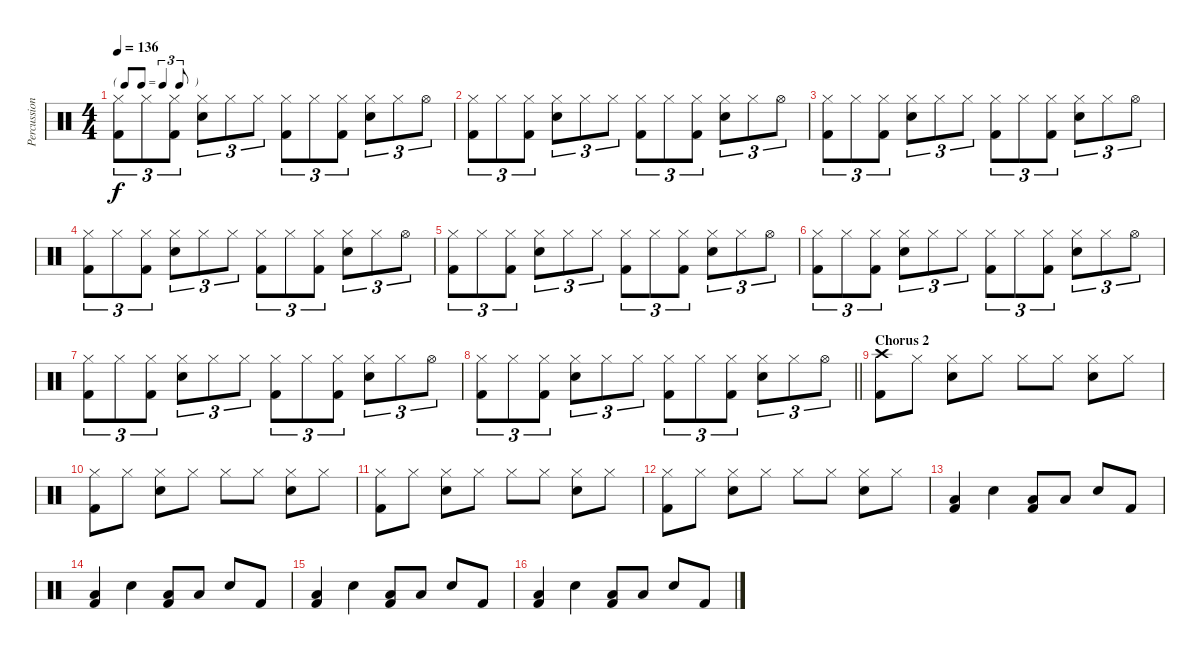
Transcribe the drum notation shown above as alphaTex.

\track ("Percussions" "Percussion") {instrument percussion}
\staff {score}
\articulation defaults
\ts (4 4)
\tf triplet8th
\tempo 136
\clef neutral
\ks c
("Hi-Hat (closed)" "Kick (hit) 2").8{tu (3 2) dy f} "Hi-Hat (closed)".8{tu (3 2)} ("Hi-Hat (closed)" "Kick (hit) 2").8{tu (3 2)} ("Hi-Hat (closed)" "Snare (hit) 2").8{tu (3 2)} "Hi-Hat (closed)".8{tu (3 2)} "Hi-Hat (closed)".8{tu (3 2)} ("Hi-Hat (closed)" "Kick (hit) 2").8{tu (3 2)} "Hi-Hat (closed)".8{tu (3 2)} ("Hi-Hat (closed)" "Kick (hit) 2").8{tu (3 2)} ("Hi-Hat (closed)" "Snare (hit) 2").8{tu (3 2)} "Hi-Hat (closed)".8{tu (3 2)} "Hi-Hat (open)".8{tu (3 2)} |
("Hi-Hat (closed)" "Kick (hit) 2").8{tu (3 2)} "Hi-Hat (closed)".8{tu (3 2)} ("Hi-Hat (closed)" "Kick (hit) 2").8{tu (3 2)} ("Hi-Hat (closed)" "Snare (hit) 2").8{tu (3 2)} "Hi-Hat (closed)".8{tu (3 2)} "Hi-Hat (closed)".8{tu (3 2)} ("Hi-Hat (closed)" "Kick (hit) 2").8{tu (3 2)} "Hi-Hat (closed)".8{tu (3 2)} ("Hi-Hat (closed)" "Kick (hit) 2").8{tu (3 2)} ("Hi-Hat (closed)" "Snare (hit) 2").8{tu (3 2)} "Hi-Hat (closed)".8{tu (3 2)} "Hi-Hat (open)".8{tu (3 2)} |
("Hi-Hat (closed)" "Kick (hit) 2").8{tu (3 2)} "Hi-Hat (closed)".8{tu (3 2)} ("Hi-Hat (closed)" "Kick (hit) 2").8{tu (3 2)} ("Hi-Hat (closed)" "Snare (hit) 2").8{tu (3 2)} "Hi-Hat (closed)".8{tu (3 2)} "Hi-Hat (closed)".8{tu (3 2)} ("Hi-Hat (closed)" "Kick (hit) 2").8{tu (3 2)} "Hi-Hat (closed)".8{tu (3 2)} ("Hi-Hat (closed)" "Kick (hit) 2").8{tu (3 2)} ("Hi-Hat (closed)" "Snare (hit) 2").8{tu (3 2)} "Hi-Hat (closed)".8{tu (3 2)} "Hi-Hat (open)".8{tu (3 2)} |
("Hi-Hat (closed)" "Kick (hit) 2").8{tu (3 2)} "Hi-Hat (closed)".8{tu (3 2)} ("Hi-Hat (closed)" "Kick (hit) 2").8{tu (3 2)} ("Hi-Hat (closed)" "Snare (hit) 2").8{tu (3 2)} "Hi-Hat (closed)".8{tu (3 2)} "Hi-Hat (closed)".8{tu (3 2)} ("Hi-Hat (closed)" "Kick (hit) 2").8{tu (3 2)} "Hi-Hat (closed)".8{tu (3 2)} ("Hi-Hat (closed)" "Kick (hit) 2").8{tu (3 2)} ("Hi-Hat (closed)" "Snare (hit) 2").8{tu (3 2)} "Hi-Hat (closed)".8{tu (3 2)} "Hi-Hat (open)".8{tu (3 2)} |
("Hi-Hat (closed)" "Kick (hit) 2").8{tu (3 2)} "Hi-Hat (closed)".8{tu (3 2)} ("Hi-Hat (closed)" "Kick (hit) 2").8{tu (3 2)} ("Hi-Hat (closed)" "Snare (hit) 2").8{tu (3 2)} "Hi-Hat (closed)".8{tu (3 2)} "Hi-Hat (closed)".8{tu (3 2)} ("Hi-Hat (closed)" "Kick (hit) 2").8{tu (3 2)} "Hi-Hat (closed)".8{tu (3 2)} ("Hi-Hat (closed)" "Kick (hit) 2").8{tu (3 2)} ("Hi-Hat (closed)" "Snare (hit) 2").8{tu (3 2)} "Hi-Hat (closed)".8{tu (3 2)} "Hi-Hat (open)".8{tu (3 2)} |
("Hi-Hat (closed)" "Kick (hit) 2").8{tu (3 2)} "Hi-Hat (closed)".8{tu (3 2)} ("Hi-Hat (closed)" "Kick (hit) 2").8{tu (3 2)} ("Hi-Hat (closed)" "Snare (hit) 2").8{tu (3 2)} "Hi-Hat (closed)".8{tu (3 2)} "Hi-Hat (closed)".8{tu (3 2)} ("Hi-Hat (closed)" "Kick (hit) 2").8{tu (3 2)} "Hi-Hat (closed)".8{tu (3 2)} ("Hi-Hat (closed)" "Kick (hit) 2").8{tu (3 2)} ("Hi-Hat (closed)" "Snare (hit) 2").8{tu (3 2)} "Hi-Hat (closed)".8{tu (3 2)} "Hi-Hat (open)".8{tu (3 2)} |
("Hi-Hat (closed)" "Kick (hit) 2").8{tu (3 2)} "Hi-Hat (closed)".8{tu (3 2)} ("Hi-Hat (closed)" "Kick (hit) 2").8{tu (3 2)} ("Hi-Hat (closed)" "Snare (hit) 2").8{tu (3 2)} "Hi-Hat (closed)".8{tu (3 2)} "Hi-Hat (closed)".8{tu (3 2)} ("Hi-Hat (closed)" "Kick (hit) 2").8{tu (3 2)} "Hi-Hat (closed)".8{tu (3 2)} ("Hi-Hat (closed)" "Kick (hit) 2").8{tu (3 2)} ("Hi-Hat (closed)" "Snare (hit) 2").8{tu (3 2)} "Hi-Hat (closed)".8{tu (3 2)} "Hi-Hat (open)".8{tu (3 2)} |
\barLineRight lightlight
("Hi-Hat (closed)" "Kick (hit) 2").8{tu (3 2)} "Hi-Hat (closed)".8{tu (3 2)} ("Hi-Hat (closed)" "Kick (hit) 2").8{tu (3 2)} ("Hi-Hat (closed)" "Snare (hit) 2").8{tu (3 2)} "Hi-Hat (closed)".8{tu (3 2)} "Hi-Hat (closed)".8{tu (3 2)} ("Hi-Hat (closed)" "Kick (hit) 2").8{tu (3 2)} "Hi-Hat (closed)".8{tu (3 2)} ("Hi-Hat (closed)" "Kick (hit) 2").8{tu (3 2)} ("Hi-Hat (closed)" "Snare (hit) 2").8{tu (3 2)} "Hi-Hat (closed)".8{tu (3 2)} "Hi-Hat (open)".8{tu (3 2)} |
\section ("" "Chorus 2")
("Crash high (hit)" "Kick (hit) 2").8 "Hi-Hat (closed)".8 ("Hi-Hat (closed)" "Snare (hit) 2").8 "Hi-Hat (closed)".8 "Hi-Hat (closed)".8 "Hi-Hat (closed)".8 ("Hi-Hat (closed)" "Snare (hit) 2").8 "Hi-Hat (closed)".8 |
("Hi-Hat (closed)" "Kick (hit) 2").8 "Hi-Hat (closed)".8 ("Hi-Hat (closed)" "Snare (hit) 2").8 "Hi-Hat (closed)".8 "Hi-Hat (closed)".8 "Hi-Hat (closed)".8 ("Hi-Hat (closed)" "Snare (hit) 2").8 "Hi-Hat (closed)".8 |
("Hi-Hat (closed)" "Kick (hit) 2").8 "Hi-Hat (closed)".8 ("Hi-Hat (closed)" "Snare (hit) 2").8 "Hi-Hat (closed)".8 "Hi-Hat (closed)".8 "Hi-Hat (closed)".8 ("Hi-Hat (closed)" "Snare (hit) 2").8 "Hi-Hat (closed)".8 |
("Hi-Hat (closed)" "Kick (hit) 2").8 "Hi-Hat (closed)".8 ("Hi-Hat (closed)" "Snare (hit) 2").8 "Hi-Hat (closed)".8 "Hi-Hat (closed)".8 "Hi-Hat (closed)".8 ("Hi-Hat (closed)" "Snare (hit) 2").8 "Hi-Hat (closed)".8 |
("Low Floor Tom (hit)" "Kick (hit) 2").4 "Snare (hit) 2".4 ("Low Floor Tom (hit)" "Kick (hit) 2").8 "Low Floor Tom (hit)".8 "Snare (hit) 2".8 "Kick (hit) 2".8 |
("Low Floor Tom (hit)" "Kick (hit) 2").4 "Snare (hit) 2".4 ("Low Floor Tom (hit)" "Kick (hit) 2").8 "Low Floor Tom (hit)".8 "Snare (hit) 2".8 "Kick (hit) 2".8 |
("Low Floor Tom (hit)" "Kick (hit) 2").4 "Snare (hit) 2".4 ("Low Floor Tom (hit)" "Kick (hit) 2").8 "Low Floor Tom (hit)".8 "Snare (hit) 2".8 "Kick (hit) 2".8 |
("Low Floor Tom (hit)" "Kick (hit) 2").4 "Snare (hit) 2".4 ("Low Floor Tom (hit)" "Kick (hit) 2").8 "Low Floor Tom (hit)".8 "Snare (hit) 2".8 "Kick (hit) 2".8
